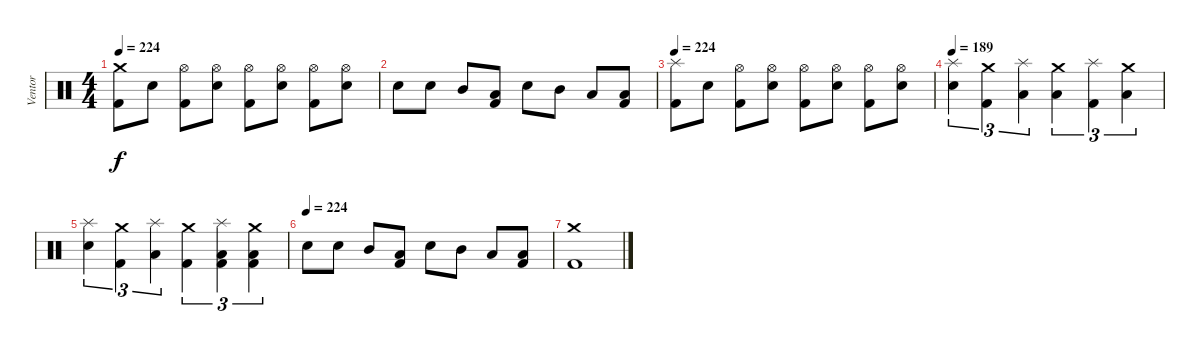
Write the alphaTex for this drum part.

\track ("Ventor" "Ventor") {instrument percussion}
\staff {score}
\articulation defaults
\ts (4 4)
\tempo 224
\clef neutral
\ks c
("Crash medium (hit)" "Kick (hit) 2").8{dy f} "Electric Snare (hit)".8 ("Hi-Hat (open)" "Kick (hit) 2").8 ("Hi-Hat (open)" "Electric Snare (hit)").8 ("Hi-Hat (open)" "Kick (hit) 2").8 ("Hi-Hat (open)" "Electric Snare (hit)").8 ("Hi-Hat (open)" "Kick (hit) 2").8 ("Hi-Hat (open)" "Electric Snare (hit)").8 |
"Electric Snare (hit)".8 "Electric Snare (hit)".8 "Mid Tom (hit)".8 ("Low Tom (hit)" "Kick (hit) 2").8 "Electric Snare (hit)".8 "Mid Tom (hit)".8 "Low Tom (hit)".8 ("Low Floor Tom (hit)" "Kick (hit) 2").8 |
\tempo 224
("Splash (hit)" "Kick (hit) 2").8 "Electric Snare (hit)".8 ("Hi-Hat (open)" "Kick (hit) 2").8 ("Hi-Hat (open)" "Electric Snare (hit)").8 ("Hi-Hat (open)" "Kick (hit) 2").8 ("Hi-Hat (open)" "Electric Snare (hit)").8 ("Hi-Hat (open)" "Kick (hit) 2").8 ("Hi-Hat (open)" "Electric Snare (hit)").8 |
\tempo 189
("Splash (hit)" "Electric Snare (hit)").4{tu (3 2)} ("Crash medium (hit)" "Kick (hit) 2").4{tu (3 2)} ("Splash (hit)" "Low Tom (hit)").4{tu (3 2)} ("Crash medium (hit)" "Low Floor Tom (hit)").4{tu (3 2)} ("Splash (hit)" "Kick (hit) 2").4{tu (3 2)} ("Crash medium (hit)" "Low Floor Tom (hit)").4{tu (3 2)} |
("Splash (hit)" "Electric Snare (hit)").4{tu (3 2)} ("Crash medium (hit)" "Kick (hit) 2").4{tu (3 2)} ("Splash (hit)" "Low Tom (hit)").4{tu (3 2)} ("Crash medium (hit)" "Kick (hit) 2").4{tu (3 2)} ("Splash (hit)" "Low Floor Tom (hit)" "Kick (hit) 2").4{tu (3 2)} ("Crash medium (hit)" "Low Floor Tom (hit)" "Kick (hit) 2").4{tu (3 2)} |
\tempo (224)
"Electric Snare (hit)".8 "Electric Snare (hit)".8 "Mid Tom (hit)".8 ("Low Tom (hit)" "Kick (hit) 2").8 "Electric Snare (hit)".8 "Mid Tom (hit)".8 "Low Tom (hit)".8 ("Low Floor Tom (hit)" "Kick (hit) 2").8 |
("Crash medium (hit)" "Kick (hit) 2").1
